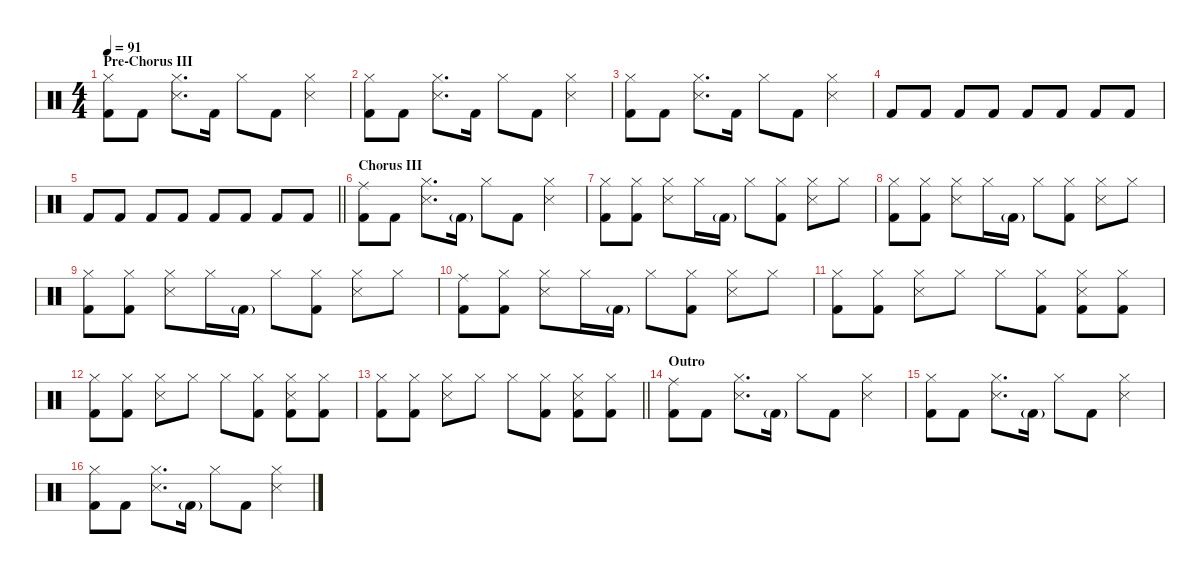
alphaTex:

\defaultSystemsLayout 4
\hideDynamics
\bracketExtendMode nobrackets
\singleTrackTrackNamePolicy hidden
\multiTrackTrackNamePolicy hidden
\otherSystemsTrackNameOrientation horizontal
\track ("Jose Pasillas" "drm.") {defaultSystemsLayout 4 instrument percussion}
\staff {score}
\articulation defaults
\ts (4 4)
\section ("" "Pre-Chorus III")
\tempo 91
\clef neutral
\ks c
("Hi-Hat (closed)" "Kick (hit) 2").8{dy f beam Down} "Kick (hit) 2".8{beam Down} ("Hi-Hat (closed)" "Snare (side stick) 3").8{d beam Down} "Kick (hit) 2".16{beam Down} "Hi-Hat (closed)".8{beam Down} "Kick (hit) 2".8{beam Down} ("Hi-Hat (closed)" "Snare (side stick) 3").4{beam Down} |
("Hi-Hat (closed)" "Kick (hit) 2").8{beam Down} "Kick (hit) 2".8{beam Down} ("Hi-Hat (closed)" "Snare (side stick) 3").8{d beam Down} "Kick (hit) 2".16{beam Down} "Hi-Hat (closed)".8{beam Down} "Kick (hit) 2".8{beam Down} ("Hi-Hat (closed)" "Snare (side stick) 3").4{beam Down} |
("Hi-Hat (closed)" "Kick (hit) 2").8{beam Down} "Kick (hit) 2".8{beam Down} ("Hi-Hat (closed)" "Snare (side stick) 3").8{d beam Down} "Kick (hit) 2".16{beam Down} "Hi-Hat (closed)".8{beam Down} "Kick (hit) 2".8{beam Down} ("Hi-Hat (closed)" "Snare (side stick) 3").4{beam Down} |
"Kick (hit) 2".8{beam Up} "Kick (hit) 2".8{beam Up} "Kick (hit) 2".8{beam Up} "Kick (hit) 2".8{beam Up} "Kick (hit) 2".8{beam Up} "Kick (hit) 2".8{beam Up} "Kick (hit) 2".8{beam Up} "Kick (hit) 2".8{beam Up} |
\barLineRight lightlight "Kick (hit) 2".8{beam Up} "Kick (hit) 2".8{beam Up} "Kick (hit) 2".8{beam Up} "Kick (hit) 2".8{beam Up} "Kick (hit) 2".8{beam Up} "Kick (hit) 2".8{beam Up} "Kick (hit) 2".8{beam Up} "Kick (hit) 2".8{beam Up}
|
\section ("" "Chorus III")
("Ride (middle)" "Kick (hit) 2").8{beam Down} "Kick (hit) 2".8{beam Down} ("Hi-Hat (closed)" "Snare (side stick) 3").8{d beam Down} "Kick (hit) 2"{g}.16{dy mf beam Down} "Hi-Hat (closed)".8{dy f beam Down} "Kick (hit) 2".8{beam Down} ("Hi-Hat (closed)" "Snare (side stick) 3").4{beam Down} |
("Hi-Hat (closed)" "Kick (hit) 2").8{beam Down} ("Hi-Hat (closed)" "Kick (hit) 2").8{beam Down} ("Hi-Hat (closed)" "Snare (side stick) 3").8{beam Down} "Hi-Hat (closed)".16{beam Down} "Kick (hit) 2"{g}.16{dy mf beam Down} "Hi-Hat (closed)".8{dy f beam Down} ("Hi-Hat (closed)" "Kick (hit) 2").8{beam Down} ("Hi-Hat (closed)" "Snare (side stick) 3").8{beam Down} "Hi-Hat (closed)".8{beam Down} |
("Hi-Hat (closed)" "Kick (hit) 2").8{beam Down} ("Hi-Hat (closed)" "Kick (hit) 2").8{beam Down} ("Hi-Hat (closed)" "Snare (side stick) 3").8{beam Down} "Hi-Hat (closed)".16{beam Down} "Kick (hit) 2"{g}.16{dy mf beam Down} "Hi-Hat (closed)".8{dy f beam Down} ("Hi-Hat (closed)" "Kick (hit) 2").8{beam Down} ("Hi-Hat (closed)" "Snare (side stick) 3").8{beam Down} "Hi-Hat (closed)".8{beam Down} |
("Hi-Hat (closed)" "Kick (hit) 2").8{beam Down} ("Hi-Hat (closed)" "Kick (hit) 2").8{beam Down} ("Hi-Hat (closed)" "Snare (side stick) 3").8{beam Down} "Hi-Hat (closed)".16{beam Down} "Kick (hit) 2"{g}.16{dy mf beam Down} "Hi-Hat (closed)".8{dy f beam Down} ("Hi-Hat (closed)" "Kick (hit) 2").8{beam Down} ("Hi-Hat (closed)" "Snare (side stick) 3").8{beam Down} "Hi-Hat (closed)".8{beam Down} |
("Ride (middle)" "Kick (hit) 2").8{beam Down} ("Hi-Hat (closed)" "Kick (hit) 2").8{beam Down} ("Hi-Hat (closed)" "Snare (side stick) 3").8{beam Down} "Hi-Hat (closed)".16{beam Down} "Kick (hit) 2"{g}.16{dy mf beam Down} "Hi-Hat (closed)".8{dy f beam Down} ("Hi-Hat (closed)" "Kick (hit) 2").8{beam Down} ("Hi-Hat (closed)" "Snare (side stick) 3").8{beam Down} "Hi-Hat (closed)".8{beam Down} |
("Hi-Hat (closed)" "Kick (hit) 2").8{beam Down} ("Hi-Hat (closed)" "Kick (hit) 2").8{beam Down} ("Hi-Hat (closed)" "Snare (side stick) 3").8{beam Down} "Hi-Hat (closed)".8{beam Down} "Hi-Hat (closed)".8{beam Down} ("Hi-Hat (closed)" "Kick (hit) 2").8{beam Down} ("Hi-Hat (closed)" "Snare (side stick) 3" "Kick (hit) 2").8{beam Down} ("Hi-Hat (closed)" "Kick (hit) 2").8{beam Down} |
("Hi-Hat (closed)" "Kick (hit) 2").8{beam Down} ("Hi-Hat (closed)" "Kick (hit) 2").8{beam Down} ("Hi-Hat (closed)" "Snare (side stick) 3").8{beam Down} "Hi-Hat (closed)".8{beam Down} "Hi-Hat (closed)".8{beam Down} ("Hi-Hat (closed)" "Kick (hit) 2").8{beam Down} ("Hi-Hat (closed)" "Snare (side stick) 3" "Kick (hit) 2").8{beam Down} ("Hi-Hat (closed)" "Kick (hit) 2").8{beam Down} |
\barLineRight lightlight
("Hi-Hat (closed)" "Kick (hit) 2").8{beam Down} ("Hi-Hat (closed)" "Kick (hit) 2").8{beam Down} ("Hi-Hat (closed)" "Snare (side stick) 3").8{beam Down} "Hi-Hat (closed)".8{beam Down} "Hi-Hat (closed)".8{beam Down} ("Hi-Hat (closed)" "Kick (hit) 2").8{beam Down} ("Hi-Hat (closed)" "Snare (side stick) 3" "Kick (hit) 2").8{beam Down} ("Hi-Hat (closed)" "Kick (hit) 2").8{beam Down} |
\section ("" "Outro")
("Ride (middle)" "Kick (hit) 2").8{beam Down} "Kick (hit) 2".8{beam Down} ("Hi-Hat (closed)" "Snare (side stick) 3").8{d beam Down} "Kick (hit) 2"{g}.16{dy mf beam Down} "Hi-Hat (closed)".8{dy f beam Down} "Kick (hit) 2".8{beam Down} ("Hi-Hat (closed)" "Snare (side stick) 3").4{beam Down} |
("Hi-Hat (closed)" "Kick (hit) 2").8{beam Down} "Kick (hit) 2".8{beam Down} ("Hi-Hat (closed)" "Snare (side stick) 3").8{d beam Down} "Kick (hit) 2"{g}.16{dy mf beam Down} "Hi-Hat (closed)".8{dy f beam Down} "Kick (hit) 2".8{beam Down} ("Hi-Hat (closed)" "Snare (side stick) 3").4{beam Down} |
("Hi-Hat (closed)" "Kick (hit) 2").8{beam Down} "Kick (hit) 2".8{beam Down} ("Hi-Hat (closed)" "Snare (side stick) 3").8{d beam Down} "Kick (hit) 2"{g}.16{dy mf beam Down} "Hi-Hat (closed)".8{dy f beam Down} "Kick (hit) 2".8{beam Down} ("Hi-Hat (closed)" "Snare (side stick) 3").4{beam Down}
